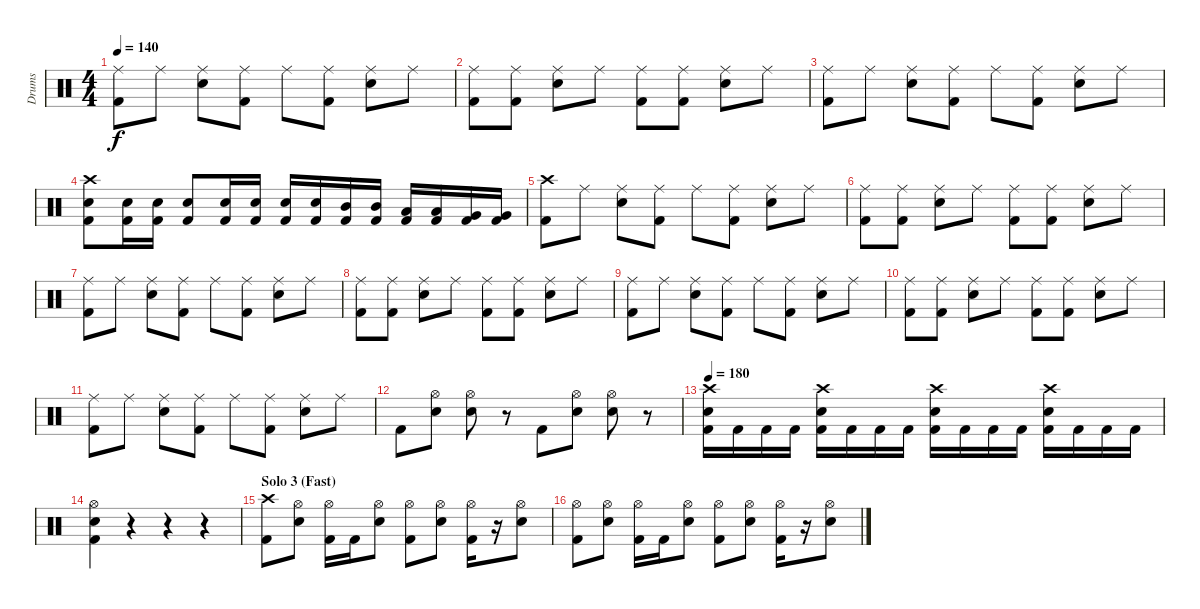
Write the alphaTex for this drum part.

\track ("Drums" "Drums") {instrument percussion}
\staff {score}
\articulation defaults
\ts (4 4)
\tempo 140
\clef neutral
\ks c
("Ride (middle)" "Kick (hit) 2").8{dy f} "Ride (middle)".8 ("Ride (middle)" "Snare (hit) 2").8 ("Ride (middle)" "Kick (hit) 2").8 "Ride (middle)".8 ("Ride (middle)" "Kick (hit) 2").8 ("Ride (middle)" "Snare (hit) 2").8 "Ride (middle)".8 |
("Ride (middle)" "Kick (hit) 2").8 ("Ride (middle)" "Kick (hit) 2").8 ("Ride (middle)" "Snare (hit) 2").8 "Ride (middle)".8 ("Ride (middle)" "Kick (hit) 2").8 ("Ride (middle)" "Kick (hit) 2").8 ("Ride (middle)" "Snare (hit) 2").8 "Ride (middle)".8 |
("Ride (middle)" "Kick (hit) 2").8 "Ride (middle)".8 ("Ride (middle)" "Snare (hit) 2").8 ("Ride (middle)" "Kick (hit) 2").8 "Ride (middle)".8 ("Ride (middle)" "Kick (hit) 2").8 ("Ride (middle)" "Snare (hit) 2").8 "Ride (middle)".8 |
("Crash high (hit)" "Snare (hit) 2" "Kick (hit) 2").8 ("Snare (hit) 2" "Kick (hit) 2").16 ("Snare (hit) 2" "Kick (hit) 2").16 ("Snare (hit) 2" "Kick (hit) 2").8 ("Snare (hit) 2" "Kick (hit) 2").16 ("Snare (hit) 2" "Kick (hit) 2").16 ("Snare (hit) 2" "Kick (hit) 2").16 ("Snare (hit) 2" "Kick (hit) 2").16 ("Mid Tom (hit)" "Kick (hit) 2").16 ("Mid Tom (hit)" "Kick (hit) 2").16 ("Low Tom (hit)" "Kick (hit) 2").16 ("Low Tom (hit)" "Kick (hit) 2").16 ("Very Low Tom (hit)" "Kick (hit) 2").16 ("Very Low Tom (hit)" "Kick (hit) 2").16 |
("Crash high (hit)" "Kick (hit) 2").8 "Ride (middle)".8 ("Ride (middle)" "Snare (hit) 2").8 ("Ride (middle)" "Kick (hit) 2").8 "Ride (middle)".8 ("Ride (middle)" "Kick (hit) 2").8 ("Ride (middle)" "Snare (hit) 2").8 "Ride (middle)".8 |
("Ride (middle)" "Kick (hit) 2").8 ("Ride (middle)" "Kick (hit) 2").8 ("Ride (middle)" "Snare (hit) 2").8 "Ride (middle)".8 ("Ride (middle)" "Kick (hit) 2").8 ("Ride (middle)" "Kick (hit) 2").8 ("Ride (middle)" "Snare (hit) 2").8 "Ride (middle)".8 |
("Ride (middle)" "Kick (hit) 2").8 "Ride (middle)".8 ("Ride (middle)" "Snare (hit) 2").8 ("Ride (middle)" "Kick (hit) 2").8 "Ride (middle)".8 ("Ride (middle)" "Kick (hit) 2").8 ("Ride (middle)" "Snare (hit) 2").8 "Ride (middle)".8 |
("Ride (middle)" "Kick (hit) 2").8 ("Ride (middle)" "Kick (hit) 2").8 ("Ride (middle)" "Snare (hit) 2").8 "Ride (middle)".8 ("Ride (middle)" "Kick (hit) 2").8 ("Ride (middle)" "Kick (hit) 2").8 ("Ride (middle)" "Snare (hit) 2").8 "Ride (middle)".8 |
("Ride (middle)" "Kick (hit) 2").8 "Ride (middle)".8 ("Ride (middle)" "Snare (hit) 2").8 ("Ride (middle)" "Kick (hit) 2").8 "Ride (middle)".8 ("Ride (middle)" "Kick (hit) 2").8 ("Ride (middle)" "Snare (hit) 2").8 "Ride (middle)".8 |
("Ride (middle)" "Kick (hit) 2").8 ("Ride (middle)" "Kick (hit) 2").8 ("Ride (middle)" "Snare (hit) 2").8 "Ride (middle)".8 ("Ride (middle)" "Kick (hit) 2").8 ("Ride (middle)" "Kick (hit) 2").8 ("Ride (middle)" "Snare (hit) 2").8 "Ride (middle)".8 |
("Ride (middle)" "Kick (hit) 2").8 "Ride (middle)".8 ("Ride (middle)" "Snare (hit) 2").8 ("Ride (middle)" "Kick (hit) 2").8 "Ride (middle)".8 ("Ride (middle)" "Kick (hit) 2").8 ("Ride (middle)" "Snare (hit) 2").8 "Ride (middle)".8 |
"Kick (hit) 2".8 ("Hi-Hat (open)" "Snare (hit) 2").8 ("Hi-Hat (open)" "Snare (hit) 2").8 r.8 "Kick (hit) 2".8 ("Hi-Hat (open)" "Snare (hit) 2").8 ("Hi-Hat (open)" "Snare (hit) 2").8 r.8 |
\tempo 180
("Crash high (hit)" "Snare (hit) 2" "Kick (hit) 2").16 "Kick (hit) 2".16 "Kick (hit) 2".16 "Kick (hit) 2".16 ("Crash high (hit)" "Snare (hit) 2" "Kick (hit) 2").16 "Kick (hit) 2".16 "Kick (hit) 2".16 "Kick (hit) 2".16 ("Crash high (hit)" "Snare (hit) 2" "Kick (hit) 2").16 "Kick (hit) 2".16 "Kick (hit) 2".16 "Kick (hit) 2".16 ("Crash high (hit)" "Snare (hit) 2" "Kick (hit) 2").16 "Kick (hit) 2".16 "Kick (hit) 2".16 "Kick (hit) 2".16 |
("Hi-Hat (open)" "Snare (hit) 2" "Kick (hit) 2").4 r.4 r.4 r.4 |
\section ("" "Solo 3 (Fast)")
("Crash high (hit)" "Kick (hit) 2").8 ("Hi-Hat (open)" "Snare (hit) 2").8 ("Hi-Hat (open)" "Kick (hit) 2").16 "Kick (hit) 2".16 ("Hi-Hat (open)" "Snare (hit) 2").8 ("Hi-Hat (open)" "Kick (hit) 2").8 ("Hi-Hat (open)" "Snare (hit) 2").8 ("Hi-Hat (open)" "Kick (hit) 2").16 r.16 ("Hi-Hat (open)" "Snare (hit) 2").8 |
("Hi-Hat (open)" "Kick (hit) 2").8 ("Hi-Hat (open)" "Snare (hit) 2").8 ("Hi-Hat (open)" "Kick (hit) 2").16 "Kick (hit) 2".16 ("Hi-Hat (open)" "Snare (hit) 2").8 ("Hi-Hat (open)" "Kick (hit) 2").8 ("Hi-Hat (open)" "Snare (hit) 2").8 ("Hi-Hat (open)" "Kick (hit) 2").16 r.16 ("Hi-Hat (open)" "Snare (hit) 2").8
